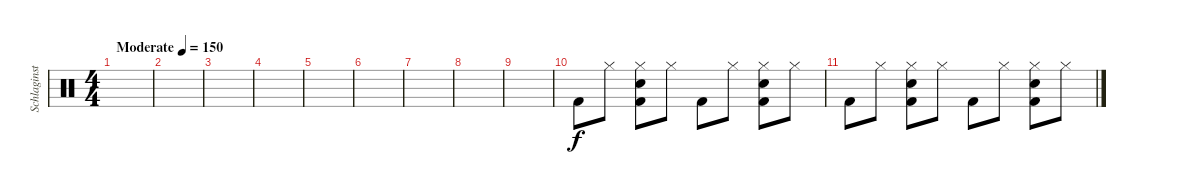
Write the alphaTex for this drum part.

\track ("Schlaginstrumente - Auswahl" "Schlaginst") {instrument percussion}
\staff {score}
\articulation defaults
\ts (4 4)
\tempo (150 "Moderate")
\clef neutral
\ks c
|
|
|
|
|
|
|
|
|
"Kick (hit) 2".8 "Hi-Hat (closed)".8 ("Kick (hit) 2" "Hi-Hat (closed)" "Electric Snare (hit)").8 "Hi-Hat (closed)".8 "Kick (hit) 2".8 "Hi-Hat (closed)".8 ("Kick (hit) 2" "Hi-Hat (closed)" "Electric Snare (hit)").8 "Hi-Hat (closed)".8 |
"Kick (hit) 2".8 "Hi-Hat (closed)".8 ("Kick (hit) 2" "Hi-Hat (closed)" "Electric Snare (hit)").8 "Hi-Hat (closed)".8 "Kick (hit) 2".8 "Hi-Hat (closed)".8 ("Kick (hit) 2" "Hi-Hat (closed)" "Electric Snare (hit)").8 "Hi-Hat (closed)".8
